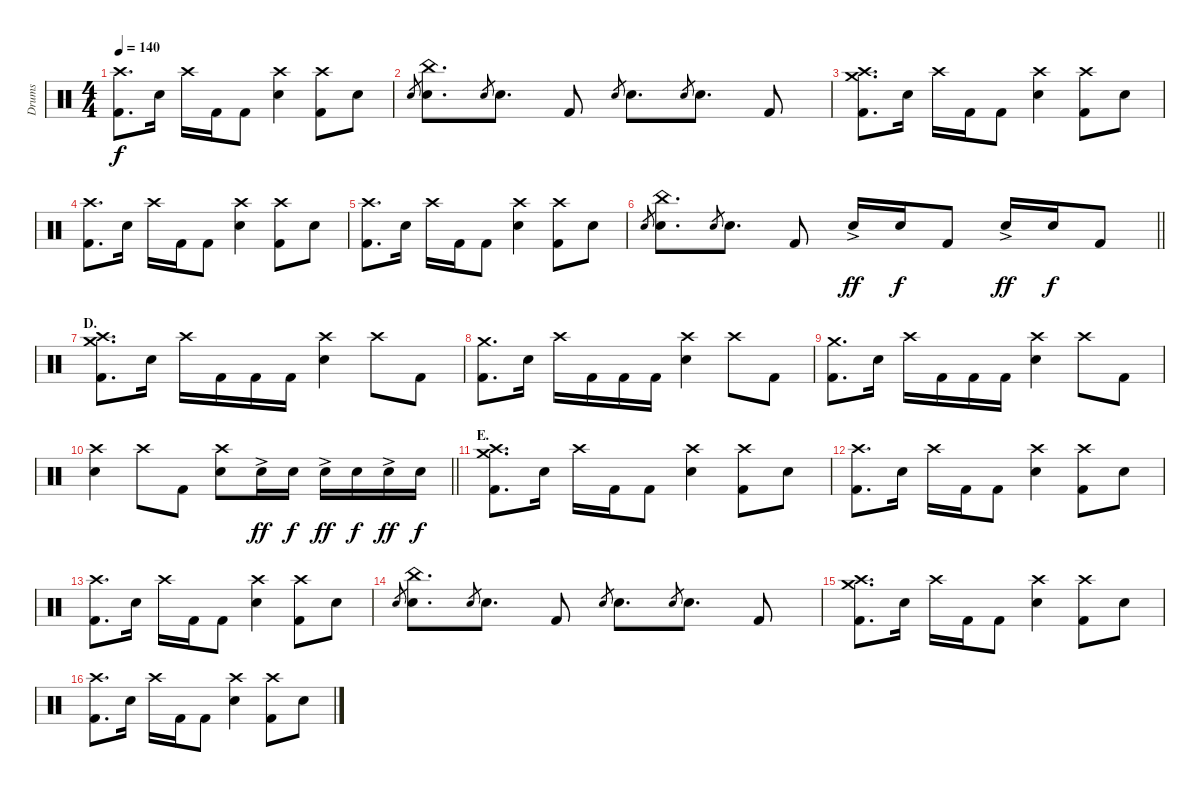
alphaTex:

\track ("Drums" "Drums") {instrument percussion}
\staff {score}
\articulation defaults
\ts (4 4)
\tempo 140
\clef neutral
\ks c
("Crash high (hit)" "Kick (hit) 2").8{d dy f} "Electric Snare (hit)".16 "Crash high (hit)".16 "Kick (hit) 2".16 "Kick (hit) 2".8 ("Crash high (hit)" "Electric Snare (hit)").4 ("Crash high (hit)" "Kick (hit) 2").8 "Electric Snare (hit)".8 |
"Electric Snare (hit)".8{gr} ("China (hit)" "Electric Snare (hit)").8{d} "Electric Snare (hit)".8{gr} "Electric Snare (hit)".8{d} "Kick (hit) 2".8 "Electric Snare (hit)".8{gr} "Electric Snare (hit)".8{d} "Electric Snare (hit)".8{gr} "Electric Snare (hit)".8{d} "Kick (hit) 2".8 |
("Crash medium (hit)" "Crash high (hit)" "Kick (hit) 2").8{d} "Electric Snare (hit)".16 "Crash high (hit)".16 "Kick (hit) 2".16 "Kick (hit) 2".8 ("Crash high (hit)" "Electric Snare (hit)").4 ("Crash high (hit)" "Kick (hit) 2").8 "Electric Snare (hit)".8 |
("Crash high (hit)" "Kick (hit) 2").8{d} "Electric Snare (hit)".16 "Crash high (hit)".16 "Kick (hit) 2".16 "Kick (hit) 2".8 ("Crash high (hit)" "Electric Snare (hit)").4 ("Crash high (hit)" "Kick (hit) 2").8 "Electric Snare (hit)".8 |
("Crash high (hit)" "Kick (hit) 2").8{d} "Electric Snare (hit)".16 "Crash high (hit)".16 "Kick (hit) 2".16 "Kick (hit) 2".8 ("Crash high (hit)" "Electric Snare (hit)").4 ("Crash high (hit)" "Kick (hit) 2").8 "Electric Snare (hit)".8 |
\barLineRight lightlight "Electric Snare (hit)".8{gr}
("China (hit)" "Electric Snare (hit)").8{d} "Electric Snare (hit)".8{gr} "Electric Snare (hit)".8{d} "Kick (hit) 2".8 "Electric Snare (hit)"{ac}.16{dy ff} "Electric Snare (hit)".16{dy f} "Kick (hit) 2".8 "Electric Snare (hit)"{ac}.16{dy ff} "Electric Snare (hit)".16{dy f} "Kick (hit) 2".8 |
\section ("" "D.")
("Crash medium (hit)" "Crash high (hit)" "Kick (hit) 2").8{d} "Electric Snare (hit)".16 "Crash high (hit)".16 "Kick (hit) 2".16 "Kick (hit) 2".16 "Kick (hit) 2".16 ("Crash high (hit)" "Electric Snare (hit)").4 "Crash high (hit)".8 "Kick (hit) 2".8 |
("Crash medium (hit)" "Kick (hit) 2").8{d} "Electric Snare (hit)".16 "Crash high (hit)".16 "Kick (hit) 2".16 "Kick (hit) 2".16 "Kick (hit) 2".16 ("Crash high (hit)" "Electric Snare (hit)").4 "Crash high (hit)".8 "Kick (hit) 2".8 |
("Crash medium (hit)" "Kick (hit) 2").8{d} "Electric Snare (hit)".16 "Crash high (hit)".16 "Kick (hit) 2".16 "Kick (hit) 2".16 "Kick (hit) 2".16 ("Crash high (hit)" "Electric Snare (hit)").4 "Crash high (hit)".8 "Kick (hit) 2".8 |
\barLineRight lightlight
("Crash high (hit)" "Electric Snare (hit)").4 "Crash high (hit)".8 "Kick (hit) 2".8 ("Crash high (hit)" "Electric Snare (hit)").8 "Electric Snare (hit)"{ac}.16{dy ff} "Electric Snare (hit)".16{dy f} "Electric Snare (hit)"{ac}.16{dy ff} "Electric Snare (hit)".16{dy f} "Electric Snare (hit)"{ac}.16{dy ff} "Electric Snare (hit)".16{dy f} |
\section ("" "E.")
("Crash medium (hit)" "Crash high (hit)" "Kick (hit) 2").8{d} "Electric Snare (hit)".16 "Crash high (hit)".16 "Kick (hit) 2".16 "Kick (hit) 2".8 ("Crash high (hit)" "Electric Snare (hit)").4 ("Crash high (hit)" "Kick (hit) 2").8 "Electric Snare (hit)".8 |
("Crash high (hit)" "Kick (hit) 2").8{d} "Electric Snare (hit)".16 "Crash high (hit)".16 "Kick (hit) 2".16 "Kick (hit) 2".8 ("Crash high (hit)" "Electric Snare (hit)").4 ("Crash high (hit)" "Kick (hit) 2").8 "Electric Snare (hit)".8 |
("Crash high (hit)" "Kick (hit) 2").8{d} "Electric Snare (hit)".16 "Crash high (hit)".16 "Kick (hit) 2".16 "Kick (hit) 2".8 ("Crash high (hit)" "Electric Snare (hit)").4 ("Crash high (hit)" "Kick (hit) 2").8 "Electric Snare (hit)".8 |
"Electric Snare (hit)".8{gr} ("China (hit)" "Electric Snare (hit)").8{d} "Electric Snare (hit)".8{gr} "Electric Snare (hit)".8{d} "Kick (hit) 2".8 "Electric Snare (hit)".8{gr} "Electric Snare (hit)".8{d} "Electric Snare (hit)".8{gr} "Electric Snare (hit)".8{d} "Kick (hit) 2".8 |
("Crash medium (hit)" "Crash high (hit)" "Kick (hit) 2").8{d} "Electric Snare (hit)".16 "Crash high (hit)".16 "Kick (hit) 2".16 "Kick (hit) 2".8 ("Crash high (hit)" "Electric Snare (hit)").4 ("Crash high (hit)" "Kick (hit) 2").8 "Electric Snare (hit)".8 |
("Crash high (hit)" "Kick (hit) 2").8{d} "Electric Snare (hit)".16 "Crash high (hit)".16 "Kick (hit) 2".16 "Kick (hit) 2".8 ("Crash high (hit)" "Electric Snare (hit)").4 ("Crash high (hit)" "Kick (hit) 2").8 "Electric Snare (hit)".8
